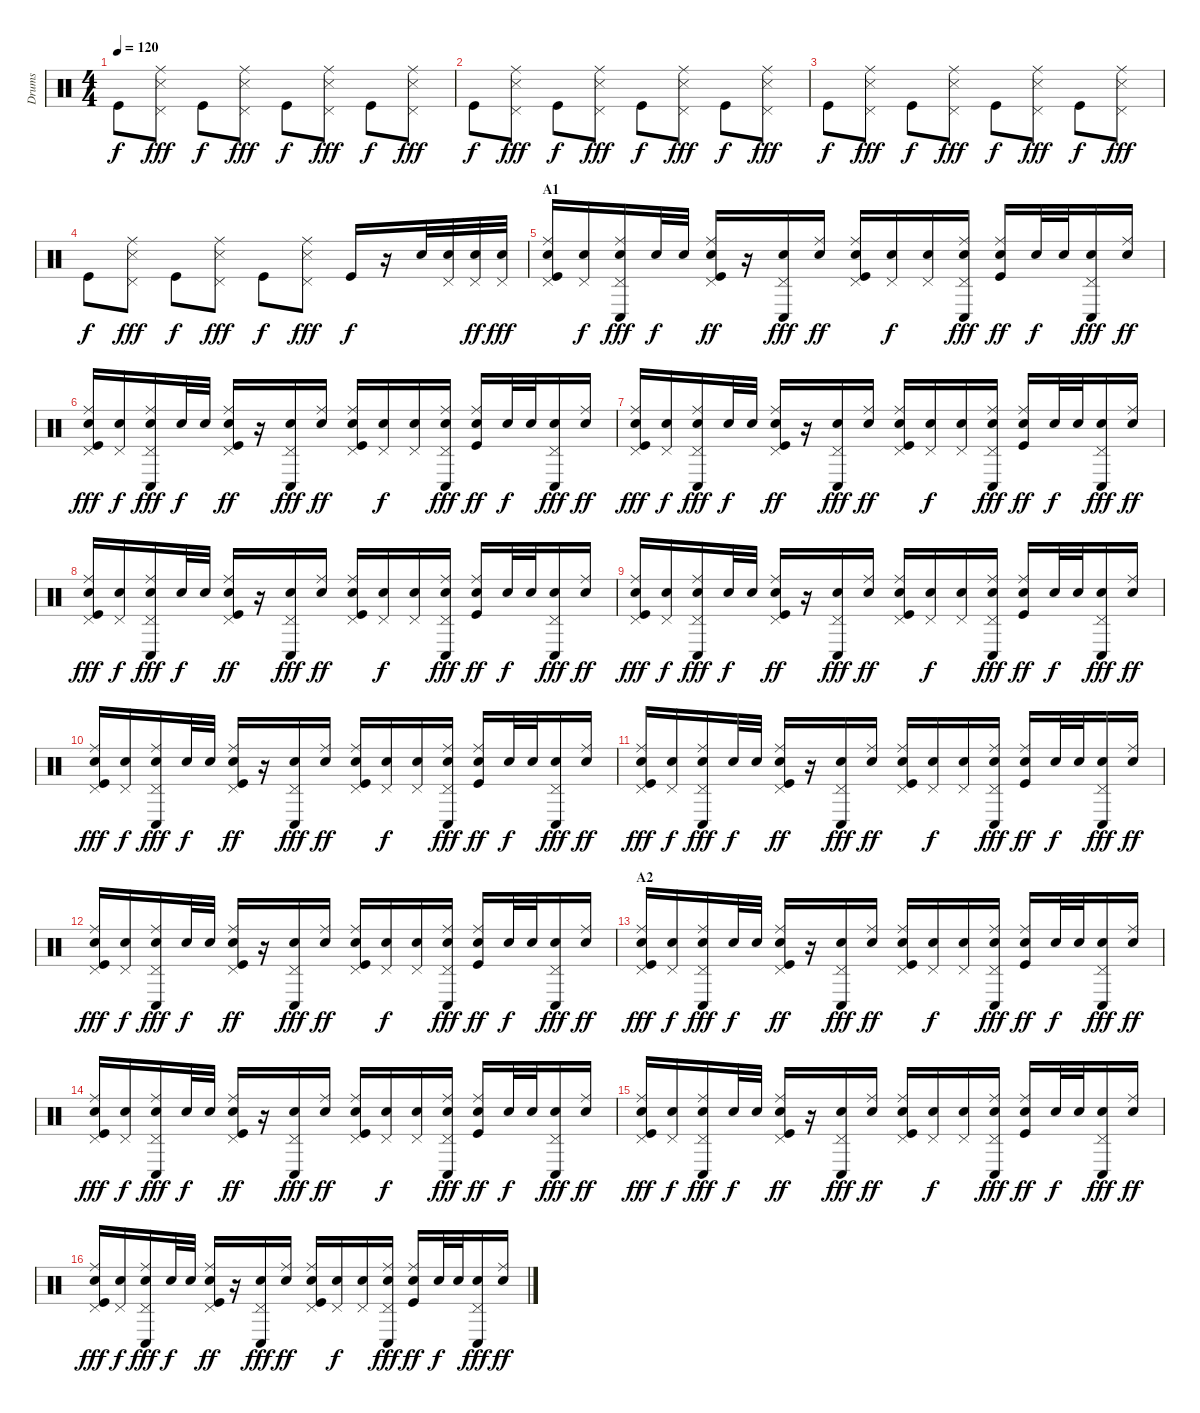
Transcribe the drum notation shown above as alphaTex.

\track ("Drums" "Drums") {instrument percussion}
\staff {score}
\articulation defaults
\ts (4 4)
\tempo 120
\clef neutral
\ks c "Kick (hit)".8{dy f}
("Ride (middle)" "Pedal Hi-Hat (hit)" "Snare (side stick) 3").8{dy fff} "Kick (hit)".8{dy f} ("Ride (middle)" "Pedal Hi-Hat (hit)" "Snare (side stick) 3").8{dy fff} "Kick (hit)".8{dy f} ("Ride (middle)" "Pedal Hi-Hat (hit)" "Snare (side stick) 3").8{dy fff} "Kick (hit)".8{dy f} ("Ride (middle)" "Pedal Hi-Hat (hit)" "Snare (side stick) 3").8{dy fff} |
"Kick (hit)".8{dy f} ("Ride (middle)" "Pedal Hi-Hat (hit)" "Snare (side stick) 3").8{dy fff} "Kick (hit)".8{dy f} ("Ride (middle)" "Pedal Hi-Hat (hit)" "Snare (side stick) 3").8{dy fff} "Kick (hit)".8{dy f} ("Ride (middle)" "Pedal Hi-Hat (hit)" "Snare (side stick) 3").8{dy fff} "Kick (hit)".8{dy f} ("Ride (middle)" "Pedal Hi-Hat (hit)" "Snare (side stick) 3").8{dy fff} |
"Kick (hit)".8{dy f} ("Ride (middle)" "Pedal Hi-Hat (hit)" "Snare (side stick) 3").8{dy fff} "Kick (hit)".8{dy f} ("Ride (middle)" "Pedal Hi-Hat (hit)" "Snare (side stick) 3").8{dy fff} "Kick (hit)".8{dy f} ("Ride (middle)" "Pedal Hi-Hat (hit)" "Snare (side stick) 3").8{dy fff} "Kick (hit)".8{dy f} ("Ride (middle)" "Pedal Hi-Hat (hit)" "Snare (side stick) 3").8{dy fff} |
"Kick (hit)".8{dy f} ("Ride (middle)" "Pedal Hi-Hat (hit)" "Snare (side stick) 3").8{dy fff} "Kick (hit)".8{dy f} ("Ride (middle)" "Pedal Hi-Hat (hit)" "Snare (side stick) 3").8{dy fff} "Kick (hit)".8{dy f} ("Ride (middle)" "Pedal Hi-Hat (hit)" "Snare (side stick) 3").8{dy fff} "Kick (hit)".16{dy f} r.16 "Electric Snare (hit)".32 ("Pedal Hi-Hat (hit)" "Electric Snare (hit)").32 ("Pedal Hi-Hat (hit)" "Electric Snare (hit)").32{dy ff} ("Pedal Hi-Hat (hit)" "Electric Snare (hit)").32{dy fff} |
\section ("" "A1")
("Ride (middle)" "Pedal Hi-Hat (hit)" "Electric Snare (hit)" "Kick (hit)").16 ("Pedal Hi-Hat (hit)" "Electric Snare (hit)").16{dy f} ("Ride (middle)" "Pedal Hi-Hat (hit)" "Conga low (hit)" "Electric Snare (hit)").16{dy fff} "Electric Snare (hit)".32{dy f} "Electric Snare (hit)".32 ("Ride (middle)" "Pedal Hi-Hat (hit)" "Electric Snare (hit)" "Kick (hit)").16{dy ff} r.16 ("Pedal Hi-Hat (hit)" "Conga low (hit)" "Electric Snare (hit)").16{dy fff} ("Ride (middle)" "Electric Snare (hit)").16{dy ff} ("Ride (middle)" "Pedal Hi-Hat (hit)" "Electric Snare (hit)" "Kick (hit)").16 ("Pedal Hi-Hat (hit)" "Electric Snare (hit)").16{dy f} ("Pedal Hi-Hat (hit)" "Electric Snare (hit)").16 ("Ride (middle)" "Pedal Hi-Hat (hit)" "Conga low (hit)" "Electric Snare (hit)").16{dy fff} ("Ride (middle)" "Electric Snare (hit)" "Kick (hit)").16{dy ff} "Electric Snare (hit)".32{dy f} "Electric Snare (hit)".32 ("Pedal Hi-Hat (hit)" "Conga low (hit)" "Electric Snare (hit)").16{dy fff} ("Ride (middle)" "Electric Snare (hit)").16{dy ff} |
("Ride (middle)" "Pedal Hi-Hat (hit)" "Electric Snare (hit)" "Kick (hit)").16{dy fff} ("Pedal Hi-Hat (hit)" "Electric Snare (hit)").16{dy f} ("Ride (middle)" "Pedal Hi-Hat (hit)" "Conga low (hit)" "Electric Snare (hit)").16{dy fff} "Electric Snare (hit)".32{dy f} "Electric Snare (hit)".32 ("Ride (middle)" "Pedal Hi-Hat (hit)" "Electric Snare (hit)" "Kick (hit)").16{dy ff} r.16 ("Pedal Hi-Hat (hit)" "Conga low (hit)" "Electric Snare (hit)").16{dy fff} ("Ride (middle)" "Electric Snare (hit)").16{dy ff} ("Ride (middle)" "Pedal Hi-Hat (hit)" "Electric Snare (hit)" "Kick (hit)").16 ("Pedal Hi-Hat (hit)" "Electric Snare (hit)").16{dy f} ("Pedal Hi-Hat (hit)" "Electric Snare (hit)").16 ("Ride (middle)" "Pedal Hi-Hat (hit)" "Conga low (hit)" "Electric Snare (hit)").16{dy fff} ("Ride (middle)" "Electric Snare (hit)" "Kick (hit)").16{dy ff} "Electric Snare (hit)".32{dy f} "Electric Snare (hit)".32 ("Pedal Hi-Hat (hit)" "Conga low (hit)" "Electric Snare (hit)").16{dy fff} ("Ride (middle)" "Electric Snare (hit)").16{dy ff} |
("Ride (middle)" "Pedal Hi-Hat (hit)" "Electric Snare (hit)" "Kick (hit)").16{dy fff} ("Pedal Hi-Hat (hit)" "Electric Snare (hit)").16{dy f} ("Ride (middle)" "Pedal Hi-Hat (hit)" "Conga low (hit)" "Electric Snare (hit)").16{dy fff} "Electric Snare (hit)".32{dy f} "Electric Snare (hit)".32 ("Ride (middle)" "Pedal Hi-Hat (hit)" "Electric Snare (hit)" "Kick (hit)").16{dy ff} r.16 ("Pedal Hi-Hat (hit)" "Conga low (hit)" "Electric Snare (hit)").16{dy fff} ("Ride (middle)" "Electric Snare (hit)").16{dy ff} ("Ride (middle)" "Pedal Hi-Hat (hit)" "Electric Snare (hit)" "Kick (hit)").16 ("Pedal Hi-Hat (hit)" "Electric Snare (hit)").16{dy f} ("Pedal Hi-Hat (hit)" "Electric Snare (hit)").16 ("Ride (middle)" "Pedal Hi-Hat (hit)" "Conga low (hit)" "Electric Snare (hit)").16{dy fff} ("Ride (middle)" "Electric Snare (hit)" "Kick (hit)").16{dy ff} "Electric Snare (hit)".32{dy f} "Electric Snare (hit)".32 ("Pedal Hi-Hat (hit)" "Conga low (hit)" "Electric Snare (hit)").16{dy fff} ("Ride (middle)" "Electric Snare (hit)").16{dy ff} |
("Ride (middle)" "Pedal Hi-Hat (hit)" "Electric Snare (hit)" "Kick (hit)").16{dy fff} ("Pedal Hi-Hat (hit)" "Electric Snare (hit)").16{dy f} ("Ride (middle)" "Pedal Hi-Hat (hit)" "Conga low (hit)" "Electric Snare (hit)").16{dy fff} "Electric Snare (hit)".32{dy f} "Electric Snare (hit)".32 ("Ride (middle)" "Pedal Hi-Hat (hit)" "Electric Snare (hit)" "Kick (hit)").16{dy ff} r.16 ("Pedal Hi-Hat (hit)" "Conga low (hit)" "Electric Snare (hit)").16{dy fff} ("Ride (middle)" "Electric Snare (hit)").16{dy ff} ("Ride (middle)" "Pedal Hi-Hat (hit)" "Electric Snare (hit)" "Kick (hit)").16 ("Pedal Hi-Hat (hit)" "Electric Snare (hit)").16{dy f} ("Pedal Hi-Hat (hit)" "Electric Snare (hit)").16 ("Ride (middle)" "Pedal Hi-Hat (hit)" "Conga low (hit)" "Electric Snare (hit)").16{dy fff} ("Ride (middle)" "Electric Snare (hit)" "Kick (hit)").16{dy ff} "Electric Snare (hit)".32{dy f} "Electric Snare (hit)".32 ("Pedal Hi-Hat (hit)" "Conga low (hit)" "Electric Snare (hit)").16{dy fff} ("Ride (middle)" "Electric Snare (hit)").16{dy ff} |
("Ride (middle)" "Pedal Hi-Hat (hit)" "Electric Snare (hit)" "Kick (hit)").16{dy fff} ("Pedal Hi-Hat (hit)" "Electric Snare (hit)").16{dy f} ("Ride (middle)" "Pedal Hi-Hat (hit)" "Conga low (hit)" "Electric Snare (hit)").16{dy fff} "Electric Snare (hit)".32{dy f} "Electric Snare (hit)".32 ("Ride (middle)" "Pedal Hi-Hat (hit)" "Electric Snare (hit)" "Kick (hit)").16{dy ff} r.16 ("Pedal Hi-Hat (hit)" "Conga low (hit)" "Electric Snare (hit)").16{dy fff} ("Ride (middle)" "Electric Snare (hit)").16{dy ff} ("Ride (middle)" "Pedal Hi-Hat (hit)" "Electric Snare (hit)" "Kick (hit)").16 ("Pedal Hi-Hat (hit)" "Electric Snare (hit)").16{dy f} ("Pedal Hi-Hat (hit)" "Electric Snare (hit)").16 ("Ride (middle)" "Pedal Hi-Hat (hit)" "Conga low (hit)" "Electric Snare (hit)").16{dy fff} ("Ride (middle)" "Electric Snare (hit)" "Kick (hit)").16{dy ff} "Electric Snare (hit)".32{dy f} "Electric Snare (hit)".32 ("Pedal Hi-Hat (hit)" "Conga low (hit)" "Electric Snare (hit)").16{dy fff} ("Ride (middle)" "Electric Snare (hit)").16{dy ff} |
("Ride (middle)" "Pedal Hi-Hat (hit)" "Electric Snare (hit)" "Kick (hit)").16{dy fff} ("Pedal Hi-Hat (hit)" "Electric Snare (hit)").16{dy f} ("Ride (middle)" "Pedal Hi-Hat (hit)" "Conga low (hit)" "Electric Snare (hit)").16{dy fff} "Electric Snare (hit)".32{dy f} "Electric Snare (hit)".32 ("Ride (middle)" "Pedal Hi-Hat (hit)" "Electric Snare (hit)" "Kick (hit)").16{dy ff} r.16 ("Pedal Hi-Hat (hit)" "Conga low (hit)" "Electric Snare (hit)").16{dy fff} ("Ride (middle)" "Electric Snare (hit)").16{dy ff} ("Ride (middle)" "Pedal Hi-Hat (hit)" "Electric Snare (hit)" "Kick (hit)").16 ("Pedal Hi-Hat (hit)" "Electric Snare (hit)").16{dy f} ("Pedal Hi-Hat (hit)" "Electric Snare (hit)").16 ("Ride (middle)" "Pedal Hi-Hat (hit)" "Conga low (hit)" "Electric Snare (hit)").16{dy fff} ("Ride (middle)" "Electric Snare (hit)" "Kick (hit)").16{dy ff} "Electric Snare (hit)".32{dy f} "Electric Snare (hit)".32 ("Pedal Hi-Hat (hit)" "Conga low (hit)" "Electric Snare (hit)").16{dy fff} ("Ride (middle)" "Electric Snare (hit)").16{dy ff} |
("Ride (middle)" "Pedal Hi-Hat (hit)" "Electric Snare (hit)" "Kick (hit)").16{dy fff} ("Pedal Hi-Hat (hit)" "Electric Snare (hit)").16{dy f} ("Ride (middle)" "Pedal Hi-Hat (hit)" "Conga low (hit)" "Electric Snare (hit)").16{dy fff} "Electric Snare (hit)".32{dy f} "Electric Snare (hit)".32 ("Ride (middle)" "Pedal Hi-Hat (hit)" "Electric Snare (hit)" "Kick (hit)").16{dy ff} r.16 ("Pedal Hi-Hat (hit)" "Conga low (hit)" "Electric Snare (hit)").16{dy fff} ("Ride (middle)" "Electric Snare (hit)").16{dy ff} ("Ride (middle)" "Pedal Hi-Hat (hit)" "Electric Snare (hit)" "Kick (hit)").16 ("Pedal Hi-Hat (hit)" "Electric Snare (hit)").16{dy f} ("Pedal Hi-Hat (hit)" "Electric Snare (hit)").16 ("Ride (middle)" "Pedal Hi-Hat (hit)" "Conga low (hit)" "Electric Snare (hit)").16{dy fff} ("Ride (middle)" "Electric Snare (hit)" "Kick (hit)").16{dy ff} "Electric Snare (hit)".32{dy f} "Electric Snare (hit)".32 ("Pedal Hi-Hat (hit)" "Conga low (hit)" "Electric Snare (hit)").16{dy fff} ("Ride (middle)" "Electric Snare (hit)").16{dy ff} |
("Ride (middle)" "Pedal Hi-Hat (hit)" "Electric Snare (hit)" "Kick (hit)").16{dy fff} ("Pedal Hi-Hat (hit)" "Electric Snare (hit)").16{dy f} ("Ride (middle)" "Pedal Hi-Hat (hit)" "Conga low (hit)" "Electric Snare (hit)").16{dy fff} "Electric Snare (hit)".32{dy f} "Electric Snare (hit)".32 ("Ride (middle)" "Pedal Hi-Hat (hit)" "Electric Snare (hit)" "Kick (hit)").16{dy ff} r.16 ("Pedal Hi-Hat (hit)" "Conga low (hit)" "Electric Snare (hit)").16{dy fff} ("Ride (middle)" "Electric Snare (hit)").16{dy ff} ("Ride (middle)" "Pedal Hi-Hat (hit)" "Electric Snare (hit)" "Kick (hit)").16 ("Pedal Hi-Hat (hit)" "Electric Snare (hit)").16{dy f} ("Pedal Hi-Hat (hit)" "Electric Snare (hit)").16 ("Ride (middle)" "Pedal Hi-Hat (hit)" "Conga low (hit)" "Electric Snare (hit)").16{dy fff} ("Ride (middle)" "Electric Snare (hit)" "Kick (hit)").16{dy ff} "Electric Snare (hit)".32{dy f} "Electric Snare (hit)".32 ("Pedal Hi-Hat (hit)" "Conga low (hit)" "Electric Snare (hit)").16{dy fff} ("Ride (middle)" "Electric Snare (hit)").16{dy ff} |
\section ("" "A2")
("Ride (middle)" "Pedal Hi-Hat (hit)" "Electric Snare (hit)" "Kick (hit)").16{dy fff} ("Pedal Hi-Hat (hit)" "Electric Snare (hit)").16{dy f} ("Ride (middle)" "Pedal Hi-Hat (hit)" "Conga low (hit)" "Electric Snare (hit)").16{dy fff} "Electric Snare (hit)".32{dy f} "Electric Snare (hit)".32 ("Ride (middle)" "Pedal Hi-Hat (hit)" "Electric Snare (hit)" "Kick (hit)").16{dy ff} r.16 ("Pedal Hi-Hat (hit)" "Conga low (hit)" "Electric Snare (hit)").16{dy fff} ("Ride (middle)" "Electric Snare (hit)").16{dy ff} ("Ride (middle)" "Pedal Hi-Hat (hit)" "Electric Snare (hit)" "Kick (hit)").16 ("Pedal Hi-Hat (hit)" "Electric Snare (hit)").16{dy f} ("Pedal Hi-Hat (hit)" "Electric Snare (hit)").16 ("Ride (middle)" "Pedal Hi-Hat (hit)" "Conga low (hit)" "Electric Snare (hit)").16{dy fff} ("Ride (middle)" "Electric Snare (hit)" "Kick (hit)").16{dy ff} "Electric Snare (hit)".32{dy f} "Electric Snare (hit)".32 ("Pedal Hi-Hat (hit)" "Conga low (hit)" "Electric Snare (hit)").16{dy fff} ("Ride (middle)" "Electric Snare (hit)").16{dy ff} |
("Ride (middle)" "Pedal Hi-Hat (hit)" "Electric Snare (hit)" "Kick (hit)").16{dy fff} ("Pedal Hi-Hat (hit)" "Electric Snare (hit)").16{dy f} ("Ride (middle)" "Pedal Hi-Hat (hit)" "Conga low (hit)" "Electric Snare (hit)").16{dy fff} "Electric Snare (hit)".32{dy f} "Electric Snare (hit)".32 ("Ride (middle)" "Pedal Hi-Hat (hit)" "Electric Snare (hit)" "Kick (hit)").16{dy ff} r.16 ("Pedal Hi-Hat (hit)" "Conga low (hit)" "Electric Snare (hit)").16{dy fff} ("Ride (middle)" "Electric Snare (hit)").16{dy ff} ("Ride (middle)" "Pedal Hi-Hat (hit)" "Electric Snare (hit)" "Kick (hit)").16 ("Pedal Hi-Hat (hit)" "Electric Snare (hit)").16{dy f} ("Pedal Hi-Hat (hit)" "Electric Snare (hit)").16 ("Ride (middle)" "Pedal Hi-Hat (hit)" "Conga low (hit)" "Electric Snare (hit)").16{dy fff} ("Ride (middle)" "Electric Snare (hit)" "Kick (hit)").16{dy ff} "Electric Snare (hit)".32{dy f} "Electric Snare (hit)".32 ("Pedal Hi-Hat (hit)" "Conga low (hit)" "Electric Snare (hit)").16{dy fff} ("Ride (middle)" "Electric Snare (hit)").16{dy ff} |
("Ride (middle)" "Pedal Hi-Hat (hit)" "Electric Snare (hit)" "Kick (hit)").16{dy fff} ("Pedal Hi-Hat (hit)" "Electric Snare (hit)").16{dy f} ("Ride (middle)" "Pedal Hi-Hat (hit)" "Conga low (hit)" "Electric Snare (hit)").16{dy fff} "Electric Snare (hit)".32{dy f} "Electric Snare (hit)".32 ("Ride (middle)" "Pedal Hi-Hat (hit)" "Electric Snare (hit)" "Kick (hit)").16{dy ff} r.16 ("Pedal Hi-Hat (hit)" "Conga low (hit)" "Electric Snare (hit)").16{dy fff} ("Ride (middle)" "Electric Snare (hit)").16{dy ff} ("Ride (middle)" "Pedal Hi-Hat (hit)" "Electric Snare (hit)" "Kick (hit)").16 ("Pedal Hi-Hat (hit)" "Electric Snare (hit)").16{dy f} ("Pedal Hi-Hat (hit)" "Electric Snare (hit)").16 ("Ride (middle)" "Pedal Hi-Hat (hit)" "Conga low (hit)" "Electric Snare (hit)").16{dy fff} ("Ride (middle)" "Electric Snare (hit)" "Kick (hit)").16{dy ff} "Electric Snare (hit)".32{dy f} "Electric Snare (hit)".32 ("Pedal Hi-Hat (hit)" "Conga low (hit)" "Electric Snare (hit)").16{dy fff} ("Ride (middle)" "Electric Snare (hit)").16{dy ff} |
("Ride (middle)" "Pedal Hi-Hat (hit)" "Electric Snare (hit)" "Kick (hit)").16{dy fff} ("Pedal Hi-Hat (hit)" "Electric Snare (hit)").16{dy f} ("Ride (middle)" "Pedal Hi-Hat (hit)" "Conga low (hit)" "Electric Snare (hit)").16{dy fff} "Electric Snare (hit)".32{dy f} "Electric Snare (hit)".32 ("Ride (middle)" "Pedal Hi-Hat (hit)" "Electric Snare (hit)" "Kick (hit)").16{dy ff} r.16 ("Pedal Hi-Hat (hit)" "Conga low (hit)" "Electric Snare (hit)").16{dy fff} ("Ride (middle)" "Electric Snare (hit)").16{dy ff} ("Ride (middle)" "Pedal Hi-Hat (hit)" "Electric Snare (hit)" "Kick (hit)").16 ("Pedal Hi-Hat (hit)" "Electric Snare (hit)").16{dy f} ("Pedal Hi-Hat (hit)" "Electric Snare (hit)").16 ("Ride (middle)" "Pedal Hi-Hat (hit)" "Conga low (hit)" "Electric Snare (hit)").16{dy fff} ("Ride (middle)" "Electric Snare (hit)" "Kick (hit)").16{dy ff} "Electric Snare (hit)".32{dy f} "Electric Snare (hit)".32 ("Pedal Hi-Hat (hit)" "Conga low (hit)" "Electric Snare (hit)").16{dy fff} ("Ride (middle)" "Electric Snare (hit)").16{dy ff}
